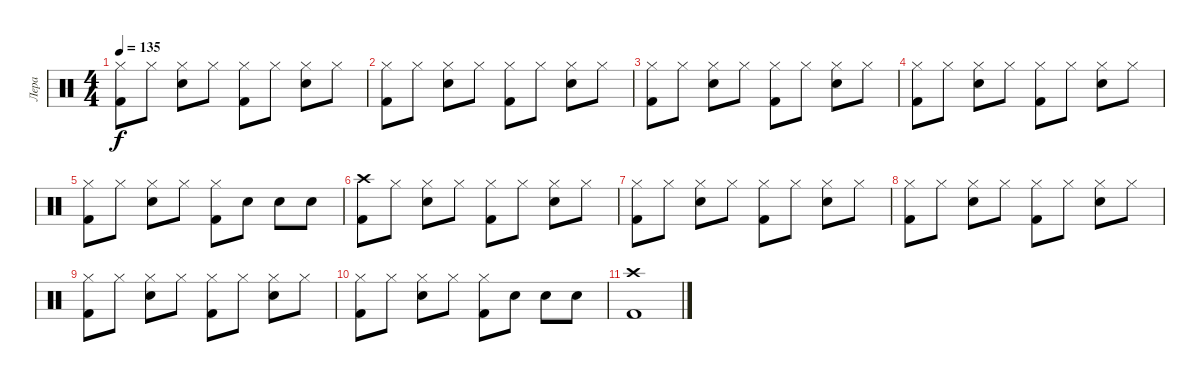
\track ("Лера" "Лера") {instrument percussion}
\staff {score}
\articulation defaults
\ts (4 4)
\tempo 135
\clef neutral
\ks c
("Hi-Hat (closed)" "Kick (hit) 2").8{dy f} "Hi-Hat (closed)".8 ("Hi-Hat (closed)" "Electric Snare (hit)").8 "Hi-Hat (closed)".8 ("Hi-Hat (closed)" "Kick (hit) 2").8 "Hi-Hat (closed)".8 ("Hi-Hat (closed)" "Electric Snare (hit)").8 "Hi-Hat (closed)".8 |
("Hi-Hat (closed)" "Kick (hit) 2").8 "Hi-Hat (closed)".8 ("Hi-Hat (closed)" "Electric Snare (hit)").8 "Hi-Hat (closed)".8 ("Hi-Hat (closed)" "Kick (hit) 2").8 "Hi-Hat (closed)".8 ("Hi-Hat (closed)" "Electric Snare (hit)").8 "Hi-Hat (closed)".8 |
("Hi-Hat (closed)" "Kick (hit) 2").8 "Hi-Hat (closed)".8 ("Hi-Hat (closed)" "Electric Snare (hit)").8 "Hi-Hat (closed)".8 ("Hi-Hat (closed)" "Kick (hit) 2").8 "Hi-Hat (closed)".8 ("Hi-Hat (closed)" "Electric Snare (hit)").8 "Hi-Hat (closed)".8 |
("Hi-Hat (closed)" "Kick (hit) 2").8 "Hi-Hat (closed)".8 ("Hi-Hat (closed)" "Electric Snare (hit)").8 "Hi-Hat (closed)".8 ("Hi-Hat (closed)" "Kick (hit) 2").8 "Hi-Hat (closed)".8 ("Hi-Hat (closed)" "Electric Snare (hit)").8 "Hi-Hat (closed)".8 |
("Hi-Hat (closed)" "Kick (hit) 2").8 "Hi-Hat (closed)".8 ("Hi-Hat (closed)" "Electric Snare (hit)").8 "Hi-Hat (closed)".8 ("Hi-Hat (closed)" "Kick (hit) 2").8 "Electric Snare (hit)".8 "Electric Snare (hit)".8 "Electric Snare (hit)".8 |
("Crash high (hit)" "Kick (hit) 2").8 "Hi-Hat (closed)".8 ("Hi-Hat (closed)" "Electric Snare (hit)").8 "Hi-Hat (closed)".8 ("Hi-Hat (closed)" "Kick (hit) 2").8 "Hi-Hat (closed)".8 ("Hi-Hat (closed)" "Electric Snare (hit)").8 "Hi-Hat (closed)".8 |
("Hi-Hat (closed)" "Kick (hit) 2").8 "Hi-Hat (closed)".8 ("Hi-Hat (closed)" "Electric Snare (hit)").8 "Hi-Hat (closed)".8 ("Hi-Hat (closed)" "Kick (hit) 2").8 "Hi-Hat (closed)".8 ("Hi-Hat (closed)" "Electric Snare (hit)").8 "Hi-Hat (closed)".8 |
("Hi-Hat (closed)" "Kick (hit) 2").8 "Hi-Hat (closed)".8 ("Hi-Hat (closed)" "Electric Snare (hit)").8 "Hi-Hat (closed)".8 ("Hi-Hat (closed)" "Kick (hit) 2").8 "Hi-Hat (closed)".8 ("Hi-Hat (closed)" "Electric Snare (hit)").8 "Hi-Hat (closed)".8 |
("Hi-Hat (closed)" "Kick (hit) 2").8 "Hi-Hat (closed)".8 ("Hi-Hat (closed)" "Electric Snare (hit)").8 "Hi-Hat (closed)".8 ("Hi-Hat (closed)" "Kick (hit) 2").8 "Hi-Hat (closed)".8 ("Hi-Hat (closed)" "Electric Snare (hit)").8 "Hi-Hat (closed)".8 |
("Hi-Hat (closed)" "Kick (hit) 2").8 "Hi-Hat (closed)".8 ("Hi-Hat (closed)" "Electric Snare (hit)").8 "Hi-Hat (closed)".8 ("Hi-Hat (closed)" "Kick (hit) 2").8 "Electric Snare (hit)".8 "Electric Snare (hit)".8 "Electric Snare (hit)".8 |
("Crash high (hit)" "Kick (hit) 2").1
